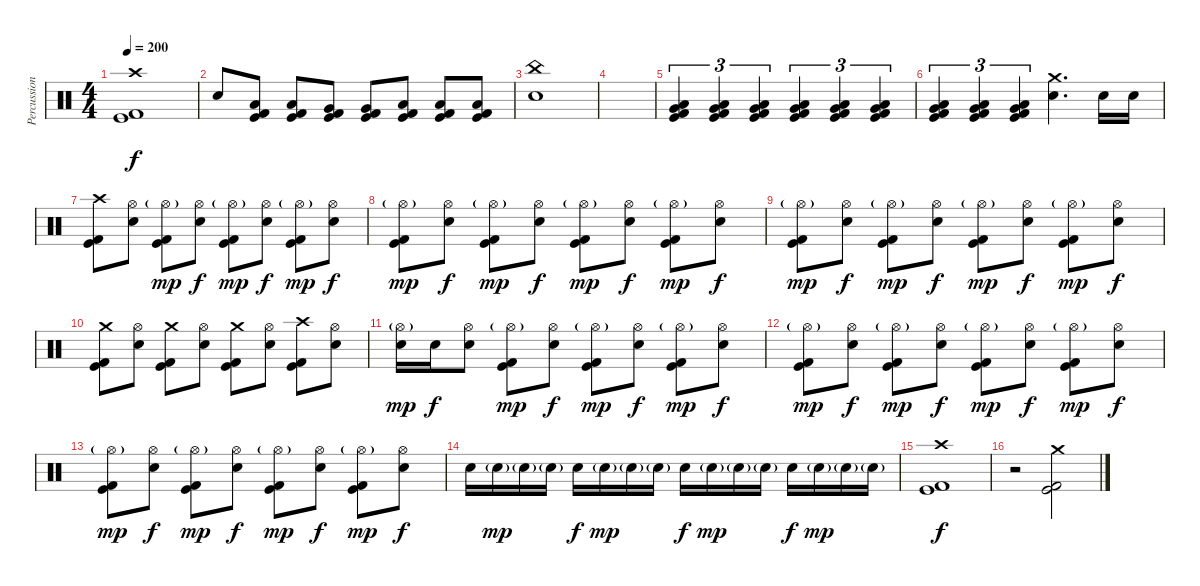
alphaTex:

\track ("Percussions" "Percussion") {instrument percussion}
\staff {score}
\articulation defaults
\ts (4 4)
\tempo 200
\clef neutral
\ks c
("Crash high (hit)" "Kick (hit)" "Kick (hit) 2").1{dy f} |
"Electric Snare (hit)".8 ("Low Tom (hit)" "Kick (hit)" "Kick (hit) 2").8 ("Low Tom (hit)" "Kick (hit)" "Kick (hit) 2").8 ("Very Low Tom (hit)" "Kick (hit)" "Kick (hit) 2").8 ("Very Low Tom (hit)" "Kick (hit)" "Kick (hit) 2").8 ("Low Floor Tom (hit)" "Kick (hit)" "Kick (hit) 2").8 ("Low Floor Tom (hit)" "Kick (hit)" "Kick (hit) 2").8 ("Low Floor Tom (hit)" "Kick (hit)" "Kick (hit) 2").8 |
("China (hit)" "Electric Snare (hit)").1 |
|
("Very Low Tom (hit)" "Low Floor Tom (hit)" "Kick (hit)" "Kick (hit) 2").4{tu (3 2)} ("Very Low Tom (hit)" "Low Floor Tom (hit)" "Kick (hit)" "Kick (hit) 2").4{tu (3 2)} ("Very Low Tom (hit)" "Low Floor Tom (hit)" "Kick (hit)" "Kick (hit) 2").4{tu (3 2)} ("Very Low Tom (hit)" "Low Tom (hit)" "Kick (hit)" "Kick (hit) 2").4{tu (3 2)} ("Very Low Tom (hit)" "Low Floor Tom (hit)" "Kick (hit)" "Kick (hit) 2").4{tu (3 2)} ("Very Low Tom (hit)" "Low Floor Tom (hit)" "Kick (hit)" "Kick (hit) 2").4{tu (3 2)} |
("Very Low Tom (hit)" "Low Floor Tom (hit)" "Kick (hit)" "Kick (hit) 2").4{tu (3 2)} ("Very Low Tom (hit)" "Low Floor Tom (hit)" "Kick (hit)" "Kick (hit) 2").4{tu (3 2)} ("Very Low Tom (hit)" "Low Floor Tom (hit)" "Kick (hit)" "Kick (hit) 2").4{tu (3 2)} ("Crash medium (hit)" "Electric Snare (hit)").4{d} "Electric Snare (hit)".16 "Electric Snare (hit)".16 |
("Crash high (hit)" "Kick (hit)" "Kick (hit) 2").8 ("Hi-Hat (open)" "Electric Snare (hit)").8 ("Hi-Hat (open)"{g} "Kick (hit)" "Kick (hit) 2").8{dy mp} ("Hi-Hat (open)" "Electric Snare (hit)").8{dy f} ("Hi-Hat (open)"{g} "Kick (hit)" "Kick (hit) 2").8{dy mp} ("Hi-Hat (open)" "Electric Snare (hit)").8{dy f} ("Hi-Hat (open)"{g} "Kick (hit)" "Kick (hit) 2").8{dy mp} ("Hi-Hat (open)" "Electric Snare (hit)").8{dy f} |
("Hi-Hat (open)"{g} "Kick (hit)" "Kick (hit) 2").8{dy mp} ("Hi-Hat (open)" "Electric Snare (hit)").8{dy f} ("Hi-Hat (open)"{g} "Kick (hit)" "Kick (hit) 2").8{dy mp} ("Hi-Hat (open)" "Electric Snare (hit)").8{dy f} ("Hi-Hat (open)"{g} "Kick (hit)" "Kick (hit) 2").8{dy mp} ("Hi-Hat (open)" "Electric Snare (hit)").8{dy f} ("Hi-Hat (open)"{g} "Kick (hit)" "Kick (hit) 2").8{dy mp} ("Hi-Hat (open)" "Electric Snare (hit)").8{dy f} |
("Hi-Hat (open)"{g} "Kick (hit)" "Kick (hit) 2").8{dy mp} ("Hi-Hat (open)" "Electric Snare (hit)").8{dy f} ("Hi-Hat (open)"{g} "Kick (hit)" "Kick (hit) 2").8{dy mp} ("Hi-Hat (open)" "Electric Snare (hit)").8{dy f} ("Hi-Hat (open)"{g} "Kick (hit)" "Kick (hit) 2").8{dy mp} ("Hi-Hat (open)" "Electric Snare (hit)").8{dy f} ("Hi-Hat (open)"{g} "Kick (hit)" "Kick (hit) 2").8{dy mp} ("Hi-Hat (open)" "Electric Snare (hit)").8{dy f} |
("Crash medium (hit)" "Kick (hit)" "Kick (hit) 2").8 ("Hi-Hat (open)" "Electric Snare (hit)").8 ("Crash medium (hit)" "Kick (hit)" "Kick (hit) 2").8 ("Hi-Hat (open)" "Electric Snare (hit)").8 ("Crash medium (hit)" "Kick (hit)" "Kick (hit) 2").8 ("Hi-Hat (open)" "Electric Snare (hit)").8 ("Crash high (hit)" "Kick (hit)" "Kick (hit) 2").8 ("Hi-Hat (open)" "Electric Snare (hit)").8 |
("Hi-Hat (open)"{g} "Electric Snare (hit)").16{dy mp} "Electric Snare (hit)".16{dy f} ("Hi-Hat (open)" "Electric Snare (hit)").8 ("Hi-Hat (open)"{g} "Kick (hit)" "Kick (hit) 2").8{dy mp} ("Hi-Hat (open)" "Electric Snare (hit)").8{dy f} ("Hi-Hat (open)"{g} "Kick (hit)" "Kick (hit) 2").8{dy mp} ("Hi-Hat (open)" "Electric Snare (hit)").8{dy f} ("Hi-Hat (open)"{g} "Kick (hit)" "Kick (hit) 2").8{dy mp} ("Hi-Hat (open)" "Electric Snare (hit)").8{dy f} |
("Hi-Hat (open)"{g} "Kick (hit)" "Kick (hit) 2").8{dy mp} ("Hi-Hat (open)" "Electric Snare (hit)").8{dy f} ("Hi-Hat (open)"{g} "Kick (hit)" "Kick (hit) 2").8{dy mp} ("Hi-Hat (open)" "Electric Snare (hit)").8{dy f} ("Hi-Hat (open)"{g} "Kick (hit)" "Kick (hit) 2").8{dy mp} ("Hi-Hat (open)" "Electric Snare (hit)").8{dy f} ("Hi-Hat (open)"{g} "Kick (hit)" "Kick (hit) 2").8{dy mp} ("Hi-Hat (open)" "Electric Snare (hit)").8{dy f} |
("Hi-Hat (open)"{g} "Kick (hit)" "Kick (hit) 2").8{dy mp} ("Hi-Hat (open)" "Electric Snare (hit)").8{dy f} ("Hi-Hat (open)"{g} "Kick (hit)" "Kick (hit) 2").8{dy mp} ("Hi-Hat (open)" "Electric Snare (hit)").8{dy f} ("Hi-Hat (open)"{g} "Kick (hit)" "Kick (hit) 2").8{dy mp} ("Hi-Hat (open)" "Electric Snare (hit)").8{dy f} ("Hi-Hat (open)"{g} "Kick (hit)" "Kick (hit) 2").8{dy mp} ("Hi-Hat (open)" "Electric Snare (hit)").8{dy f} |
"Electric Snare (hit)".16 "Electric Snare (hit)"{g}.16{dy mp} "Electric Snare (hit)"{g}.16 "Electric Snare (hit)"{g}.16 "Electric Snare (hit)".16{dy f} "Electric Snare (hit)"{g}.16{dy mp} "Electric Snare (hit)"{g}.16 "Electric Snare (hit)"{g}.16 "Electric Snare (hit)".16{dy f} "Electric Snare (hit)"{g}.16{dy mp} "Electric Snare (hit)"{g}.16 "Electric Snare (hit)"{g}.16 "Electric Snare (hit)".16{dy f} "Electric Snare (hit)"{g}.16{dy mp} "Electric Snare (hit)"{g}.16 "Electric Snare (hit)"{g}.16 |
("Crash high (hit)" "Kick (hit)" "Kick (hit) 2").1{dy f} |
r.2 ("Crash medium (hit)" "Kick (hit)" "Kick (hit) 2").2
